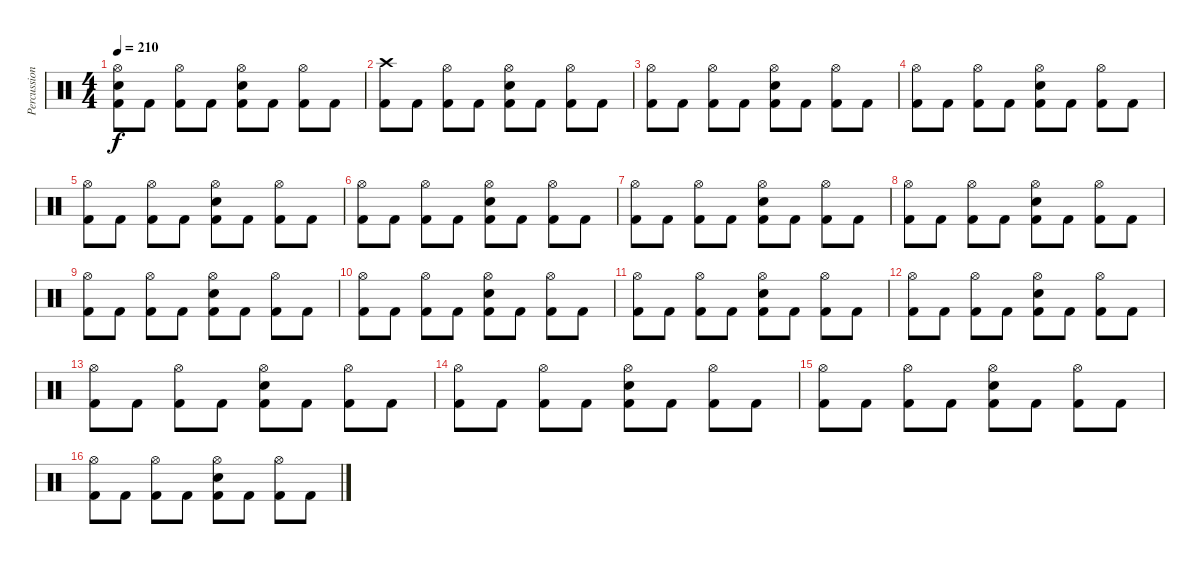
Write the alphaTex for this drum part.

\track ("Percussions" "Percussion") {instrument percussion}
\staff {score}
\articulation defaults
\ts (4 4)
\tempo 210
\clef neutral
\ks c
("Kick (hit) 2" "Electric Snare (hit)" "Hi-Hat (open)").8{dy f} "Kick (hit) 2".8 ("Kick (hit) 2" "Hi-Hat (open)").8 "Kick (hit) 2".8 ("Kick (hit) 2" "Electric Snare (hit)" "Hi-Hat (open)").8 "Kick (hit) 2".8 ("Kick (hit) 2" "Hi-Hat (open)").8 "Kick (hit) 2".8 |
("Kick (hit) 2" "Crash high (hit)").8 "Kick (hit) 2".8 ("Kick (hit) 2" "Hi-Hat (open)").8 "Kick (hit) 2".8 ("Kick (hit) 2" "Electric Snare (hit)" "Hi-Hat (open)").8 "Kick (hit) 2".8 ("Kick (hit) 2" "Hi-Hat (open)").8 "Kick (hit) 2".8 |
("Kick (hit) 2" "Hi-Hat (open)").8 "Kick (hit) 2".8 ("Kick (hit) 2" "Hi-Hat (open)").8 "Kick (hit) 2".8 ("Kick (hit) 2" "Electric Snare (hit)" "Hi-Hat (open)").8 "Kick (hit) 2".8 ("Kick (hit) 2" "Hi-Hat (open)").8 "Kick (hit) 2".8 |
("Kick (hit) 2" "Hi-Hat (open)").8 "Kick (hit) 2".8 ("Kick (hit) 2" "Hi-Hat (open)").8 "Kick (hit) 2".8 ("Kick (hit) 2" "Electric Snare (hit)" "Hi-Hat (open)").8 "Kick (hit) 2".8 ("Kick (hit) 2" "Hi-Hat (open)").8 "Kick (hit) 2".8 |
("Kick (hit) 2" "Hi-Hat (open)").8 "Kick (hit) 2".8 ("Kick (hit) 2" "Hi-Hat (open)").8 "Kick (hit) 2".8 ("Kick (hit) 2" "Electric Snare (hit)" "Hi-Hat (open)").8 "Kick (hit) 2".8 ("Kick (hit) 2" "Hi-Hat (open)").8 "Kick (hit) 2".8 |
("Kick (hit) 2" "Hi-Hat (open)").8 "Kick (hit) 2".8 ("Kick (hit) 2" "Hi-Hat (open)").8 "Kick (hit) 2".8 ("Kick (hit) 2" "Electric Snare (hit)" "Hi-Hat (open)").8 "Kick (hit) 2".8 ("Kick (hit) 2" "Hi-Hat (open)").8 "Kick (hit) 2".8 |
("Kick (hit) 2" "Hi-Hat (open)").8 "Kick (hit) 2".8 ("Kick (hit) 2" "Hi-Hat (open)").8 "Kick (hit) 2".8 ("Kick (hit) 2" "Electric Snare (hit)" "Hi-Hat (open)").8 "Kick (hit) 2".8 ("Kick (hit) 2" "Hi-Hat (open)").8 "Kick (hit) 2".8 |
("Kick (hit) 2" "Hi-Hat (open)").8 "Kick (hit) 2".8 ("Kick (hit) 2" "Hi-Hat (open)").8 "Kick (hit) 2".8 ("Kick (hit) 2" "Electric Snare (hit)" "Hi-Hat (open)").8 "Kick (hit) 2".8 ("Kick (hit) 2" "Hi-Hat (open)").8 "Kick (hit) 2".8 |
("Kick (hit) 2" "Hi-Hat (open)").8 "Kick (hit) 2".8 ("Kick (hit) 2" "Hi-Hat (open)").8 "Kick (hit) 2".8 ("Kick (hit) 2" "Electric Snare (hit)" "Hi-Hat (open)").8 "Kick (hit) 2".8 ("Kick (hit) 2" "Hi-Hat (open)").8 "Kick (hit) 2".8 |
("Kick (hit) 2" "Hi-Hat (open)").8 "Kick (hit) 2".8 ("Kick (hit) 2" "Hi-Hat (open)").8 "Kick (hit) 2".8 ("Kick (hit) 2" "Electric Snare (hit)" "Hi-Hat (open)").8 "Kick (hit) 2".8 ("Kick (hit) 2" "Hi-Hat (open)").8 "Kick (hit) 2".8 |
("Kick (hit) 2" "Hi-Hat (open)").8 "Kick (hit) 2".8 ("Kick (hit) 2" "Hi-Hat (open)").8 "Kick (hit) 2".8 ("Kick (hit) 2" "Electric Snare (hit)" "Hi-Hat (open)").8 "Kick (hit) 2".8 ("Kick (hit) 2" "Hi-Hat (open)").8 "Kick (hit) 2".8 |
("Kick (hit) 2" "Hi-Hat (open)").8 "Kick (hit) 2".8 ("Kick (hit) 2" "Hi-Hat (open)").8 "Kick (hit) 2".8 ("Kick (hit) 2" "Electric Snare (hit)" "Hi-Hat (open)").8 "Kick (hit) 2".8 ("Kick (hit) 2" "Hi-Hat (open)").8 "Kick (hit) 2".8 |
("Kick (hit) 2" "Hi-Hat (open)").8 "Kick (hit) 2".8 ("Kick (hit) 2" "Hi-Hat (open)").8 "Kick (hit) 2".8 ("Kick (hit) 2" "Electric Snare (hit)" "Hi-Hat (open)").8 "Kick (hit) 2".8 ("Kick (hit) 2" "Hi-Hat (open)").8 "Kick (hit) 2".8 |
("Kick (hit) 2" "Hi-Hat (open)").8 "Kick (hit) 2".8 ("Kick (hit) 2" "Hi-Hat (open)").8 "Kick (hit) 2".8 ("Kick (hit) 2" "Electric Snare (hit)" "Hi-Hat (open)").8 "Kick (hit) 2".8 ("Kick (hit) 2" "Hi-Hat (open)").8 "Kick (hit) 2".8 |
("Kick (hit) 2" "Hi-Hat (open)").8 "Kick (hit) 2".8 ("Kick (hit) 2" "Hi-Hat (open)").8 "Kick (hit) 2".8 ("Kick (hit) 2" "Electric Snare (hit)" "Hi-Hat (open)").8 "Kick (hit) 2".8 ("Kick (hit) 2" "Hi-Hat (open)").8 "Kick (hit) 2".8 |
("Kick (hit) 2" "Hi-Hat (open)").8 "Kick (hit) 2".8 ("Kick (hit) 2" "Hi-Hat (open)").8 "Kick (hit) 2".8 ("Kick (hit) 2" "Electric Snare (hit)" "Hi-Hat (open)").8 "Kick (hit) 2".8 ("Kick (hit) 2" "Hi-Hat (open)").8 "Kick (hit) 2".8
